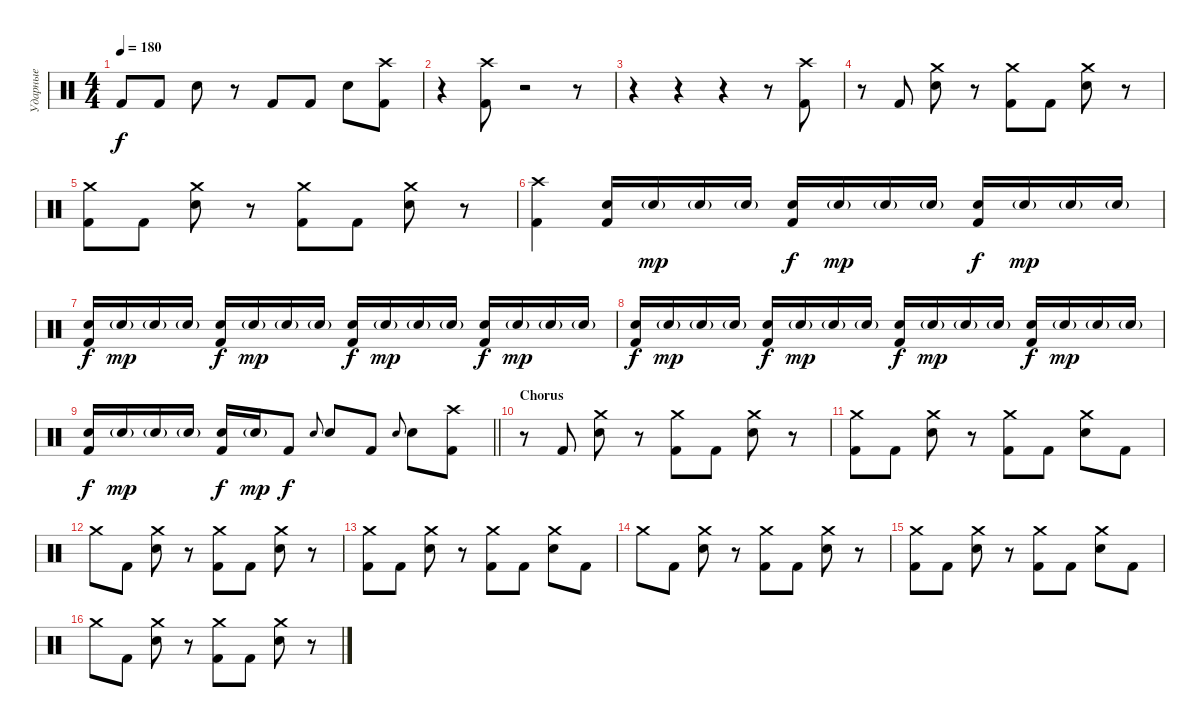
\track ("Ударные" "Ударные") {instrument percussion}
\staff {score}
\articulation defaults
\ts (4 4)
\tempo 180
\clef neutral
\ks c "Kick (hit) 2".8{dy f} "Kick (hit) 2".8 "Snare (hit) 2".8
r.8 "Kick (hit) 2".8 "Kick (hit) 2".8 "Snare (hit) 2".8 ("Crash high (hit)" "Kick (hit) 2").8 |
r.4 ("Crash high (hit)" "Kick (hit) 2").8 r.2 r.8 |
r.4 r.4 r.4 r.8 ("Crash high (hit)" "Kick (hit) 2").8 |
r.8 "Kick (hit) 2".8 ("Crash medium (hit)" "Snare (hit) 2").8 r.8 ("Crash medium (hit)" "Kick (hit) 2").8 "Kick (hit) 2".8 ("Crash medium (hit)" "Snare (hit) 2").8 r.8 |
("Crash medium (hit)" "Kick (hit) 2").8 "Kick (hit) 2".8 ("Crash medium (hit)" "Snare (hit) 2").8 r.8 ("Crash medium (hit)" "Kick (hit) 2").8 "Kick (hit) 2".8 ("Crash medium (hit)" "Snare (hit) 2").8 r.8 |
("Crash high (hit)" "Kick (hit) 2").4 ("Snare (hit) 2" "Kick (hit) 2").16 "Snare (hit) 2"{g}.16{dy mp} "Snare (hit) 2"{g}.16 "Snare (hit) 2"{g}.16 ("Snare (hit) 2" "Kick (hit) 2").16{dy f} "Snare (hit) 2"{g}.16{dy mp} "Snare (hit) 2"{g}.16 "Snare (hit) 2"{g}.16 ("Snare (hit) 2" "Kick (hit) 2").16{dy f} "Snare (hit) 2"{g}.16{dy mp} "Snare (hit) 2"{g}.16 "Snare (hit) 2"{g}.16 |
("Snare (hit) 2" "Kick (hit) 2").16{dy f} "Snare (hit) 2"{g}.16{dy mp} "Snare (hit) 2"{g}.16 "Snare (hit) 2"{g}.16 ("Snare (hit) 2" "Kick (hit) 2").16{dy f} "Snare (hit) 2"{g}.16{dy mp} "Snare (hit) 2"{g}.16 "Snare (hit) 2"{g}.16 ("Snare (hit) 2" "Kick (hit) 2").16{dy f} "Snare (hit) 2"{g}.16{dy mp} "Snare (hit) 2"{g}.16 "Snare (hit) 2"{g}.16 ("Snare (hit) 2" "Kick (hit) 2").16{dy f} "Snare (hit) 2"{g}.16{dy mp} "Snare (hit) 2"{g}.16 "Snare (hit) 2"{g}.16 |
("Snare (hit) 2" "Kick (hit) 2").16{dy f} "Snare (hit) 2"{g}.16{dy mp} "Snare (hit) 2"{g}.16 "Snare (hit) 2"{g}.16 ("Snare (hit) 2" "Kick (hit) 2").16{dy f} "Snare (hit) 2"{g}.16{dy mp} "Snare (hit) 2"{g}.16 "Snare (hit) 2"{g}.16 ("Snare (hit) 2" "Kick (hit) 2").16{dy f} "Snare (hit) 2"{g}.16{dy mp} "Snare (hit) 2"{g}.16 "Snare (hit) 2"{g}.16 ("Snare (hit) 2" "Kick (hit) 2").16{dy f} "Snare (hit) 2"{g}.16{dy mp} "Snare (hit) 2"{g}.16 "Snare (hit) 2"{g}.16 |
\barLineRight lightlight
("Snare (hit) 2" "Kick (hit) 2").16{dy f} "Snare (hit) 2"{g}.16{dy mp} "Snare (hit) 2"{g}.16 "Snare (hit) 2"{g}.16 ("Snare (hit) 2" "Kick (hit) 2").16{dy f} "Snare (hit) 2"{g}.16{dy mp} "Kick (hit) 2".8{dy f} "Snare (hit) 2".8{gr onbeat} "Snare (hit) 2".8 "Kick (hit) 2".8 "Snare (hit) 2".8{gr onbeat} "Snare (hit) 2".8 ("Crash high (hit)" "Kick (hit) 2").8 |
\section ("" "Chorus")
r.8 "Kick (hit) 2".8 ("Crash medium (hit)" "Snare (hit) 2").8 r.8 ("Crash medium (hit)" "Kick (hit) 2").8 "Kick (hit) 2".8 ("Crash medium (hit)" "Snare (hit) 2").8 r.8 |
("Crash medium (hit)" "Kick (hit) 2").8 "Kick (hit) 2".8 ("Crash medium (hit)" "Snare (hit) 2").8 r.8 ("Crash medium (hit)" "Kick (hit) 2").8 "Kick (hit) 2".8 ("Crash medium (hit)" "Snare (hit) 2").8 "Kick (hit) 2".8 |
"Crash medium (hit)".8 "Kick (hit) 2".8 ("Crash medium (hit)" "Snare (hit) 2").8 r.8 ("Crash medium (hit)" "Kick (hit) 2").8 "Kick (hit) 2".8 ("Crash medium (hit)" "Snare (hit) 2").8 r.8 |
("Crash medium (hit)" "Kick (hit) 2").8 "Kick (hit) 2".8 ("Crash medium (hit)" "Snare (hit) 2").8 r.8 ("Crash medium (hit)" "Kick (hit) 2").8 "Kick (hit) 2".8 ("Crash medium (hit)" "Snare (hit) 2").8 "Kick (hit) 2".8 |
"Crash medium (hit)".8 "Kick (hit) 2".8 ("Crash medium (hit)" "Snare (hit) 2").8 r.8 ("Crash medium (hit)" "Kick (hit) 2").8 "Kick (hit) 2".8 ("Crash medium (hit)" "Snare (hit) 2").8 r.8 |
("Crash medium (hit)" "Kick (hit) 2").8 "Kick (hit) 2".8 ("Crash medium (hit)" "Snare (hit) 2").8 r.8 ("Crash medium (hit)" "Kick (hit) 2").8 "Kick (hit) 2".8 ("Crash medium (hit)" "Snare (hit) 2").8 "Kick (hit) 2".8 |
"Crash medium (hit)".8 "Kick (hit) 2".8 ("Crash medium (hit)" "Snare (hit) 2").8 r.8 ("Crash medium (hit)" "Kick (hit) 2").8 "Kick (hit) 2".8 ("Crash medium (hit)" "Snare (hit) 2").8 r.8
